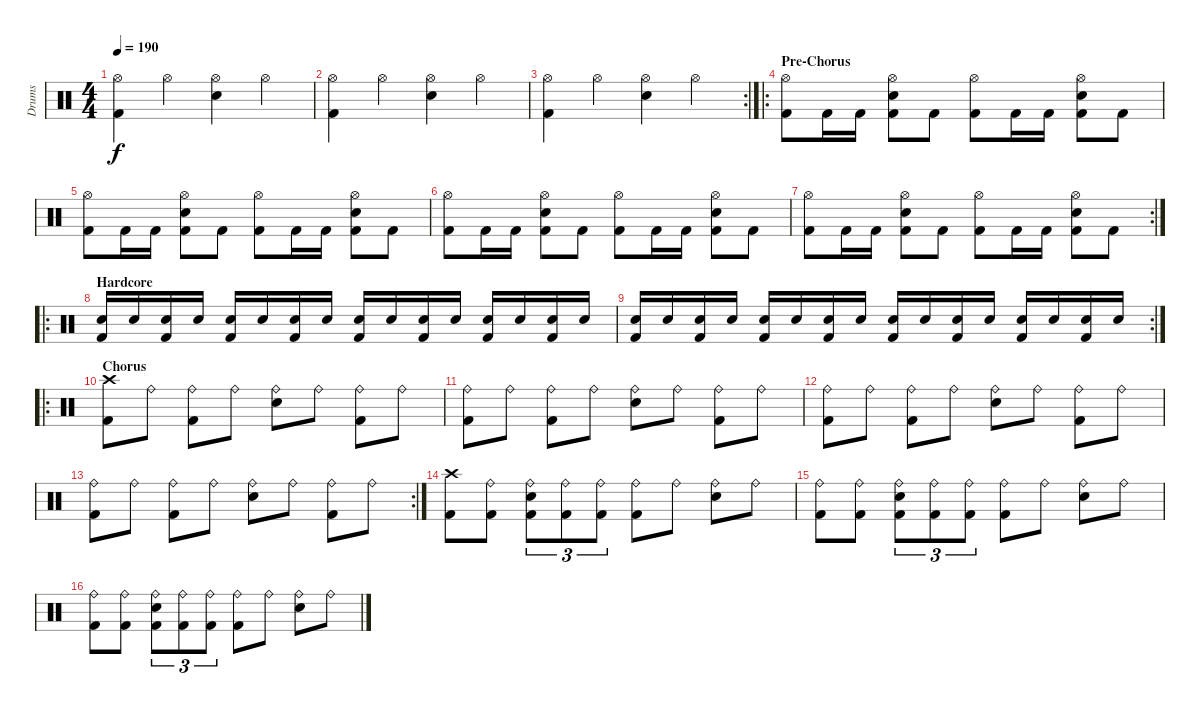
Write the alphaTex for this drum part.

\track ("Drums" "Drums") {instrument percussion}
\staff {score}
\articulation defaults
\ts (4 4)
\tempo 190
\clef neutral
\ks c
("Hi-Hat (open)" "Kick (hit) 2").4{dy f} "Hi-Hat (open)".4 ("Hi-Hat (open)" "Electric Snare (hit)").4 "Hi-Hat (open)".4 |
("Hi-Hat (open)" "Kick (hit) 2").4 "Hi-Hat (open)".4 ("Hi-Hat (open)" "Electric Snare (hit)").4 "Hi-Hat (open)".4 |
\rc 2
("Hi-Hat (open)" "Kick (hit) 2").4 "Hi-Hat (open)".4 ("Hi-Hat (open)" "Electric Snare (hit)").4 "Hi-Hat (open)".4 |
\ro
\section ("" "Pre-Chorus")
("Kick (hit) 2" "Hi-Hat (open)").8 "Kick (hit) 2".16 "Kick (hit) 2".16 ("Kick (hit) 2" "Hi-Hat (open)" "Electric Snare (hit)").8 "Kick (hit) 2".8 ("Kick (hit) 2" "Hi-Hat (open)").8 "Kick (hit) 2".16 "Kick (hit) 2".16 ("Kick (hit) 2" "Hi-Hat (open)" "Electric Snare (hit)").8 "Kick (hit) 2".8 |
("Kick (hit) 2" "Hi-Hat (open)").8 "Kick (hit) 2".16 "Kick (hit) 2".16 ("Kick (hit) 2" "Hi-Hat (open)" "Electric Snare (hit)").8 "Kick (hit) 2".8 ("Kick (hit) 2" "Hi-Hat (open)").8 "Kick (hit) 2".16 "Kick (hit) 2".16 ("Kick (hit) 2" "Hi-Hat (open)" "Electric Snare (hit)").8 "Kick (hit) 2".8 |
("Kick (hit) 2" "Hi-Hat (open)").8 "Kick (hit) 2".16 "Kick (hit) 2".16 ("Kick (hit) 2" "Hi-Hat (open)" "Electric Snare (hit)").8 "Kick (hit) 2".8 ("Kick (hit) 2" "Hi-Hat (open)").8 "Kick (hit) 2".16 "Kick (hit) 2".16 ("Kick (hit) 2" "Hi-Hat (open)" "Electric Snare (hit)").8 "Kick (hit) 2".8 |
\rc 2
("Kick (hit) 2" "Hi-Hat (open)").8 "Kick (hit) 2".16 "Kick (hit) 2".16 ("Kick (hit) 2" "Hi-Hat (open)" "Electric Snare (hit)").8 "Kick (hit) 2".8 ("Kick (hit) 2" "Hi-Hat (open)").8 "Kick (hit) 2".16 "Kick (hit) 2".16 ("Kick (hit) 2" "Hi-Hat (open)" "Electric Snare (hit)").8 "Kick (hit) 2".8 |
\ro
\section ("" "Hardcore")
("Kick (hit) 2" "Electric Snare (hit)").16 "Electric Snare (hit)".16 ("Kick (hit) 2" "Electric Snare (hit)").16 "Electric Snare (hit)".16 ("Kick (hit) 2" "Electric Snare (hit)").16 "Electric Snare (hit)".16 ("Kick (hit) 2" "Electric Snare (hit)").16 "Electric Snare (hit)".16 ("Kick (hit) 2" "Electric Snare (hit)").16 "Electric Snare (hit)".16 ("Kick (hit) 2" "Electric Snare (hit)").16 "Electric Snare (hit)".16 ("Kick (hit) 2" "Electric Snare (hit)").16 "Electric Snare (hit)".16 ("Kick (hit) 2" "Electric Snare (hit)").16 "Electric Snare (hit)".16 |
\rc 2
("Kick (hit) 2" "Electric Snare (hit)").16 "Electric Snare (hit)".16 ("Kick (hit) 2" "Electric Snare (hit)").16 "Electric Snare (hit)".16 ("Kick (hit) 2" "Electric Snare (hit)").16 "Electric Snare (hit)".16 ("Kick (hit) 2" "Electric Snare (hit)").16 "Electric Snare (hit)".16 ("Kick (hit) 2" "Electric Snare (hit)").16 "Electric Snare (hit)".16 ("Kick (hit) 2" "Electric Snare (hit)").16 "Electric Snare (hit)".16 ("Kick (hit) 2" "Electric Snare (hit)").16 "Electric Snare (hit)".16 ("Kick (hit) 2" "Electric Snare (hit)").16 "Electric Snare (hit)".16 |
\ro
\section ("" "Chorus")
("Crash high (hit)" "Kick (hit) 2").8 "Ride (bell)".8 ("Ride (bell)" "Kick (hit) 2").8 "Ride (bell)".8 ("Ride (bell)" "Electric Snare (hit)").8 "Ride (bell)".8 ("Ride (bell)" "Kick (hit) 2").8 "Ride (bell)".8 |
("Ride (bell)" "Kick (hit) 2").8 "Ride (bell)".8 ("Ride (bell)" "Kick (hit) 2").8 "Ride (bell)".8 ("Ride (bell)" "Electric Snare (hit)").8 "Ride (bell)".8 ("Ride (bell)" "Kick (hit) 2").8 "Ride (bell)".8 |
("Ride (bell)" "Kick (hit) 2").8 "Ride (bell)".8 ("Ride (bell)" "Kick (hit) 2").8 "Ride (bell)".8 ("Ride (bell)" "Electric Snare (hit)").8 "Ride (bell)".8 ("Ride (bell)" "Kick (hit) 2").8 "Ride (bell)".8 |
\rc 2
("Ride (bell)" "Kick (hit) 2").8 "Ride (bell)".8 ("Ride (bell)" "Kick (hit) 2").8 "Ride (bell)".8 ("Ride (bell)" "Electric Snare (hit)").8 "Ride (bell)".8 ("Ride (bell)" "Kick (hit) 2").8 "Ride (bell)".8 |
("Crash high (hit)" "Kick (hit) 2").8 ("Ride (bell)" "Kick (hit) 2").8 ("Ride (bell)" "Kick (hit) 2" "Electric Snare (hit)").8{tu (3 2)} ("Ride (bell)" "Kick (hit) 2").8{tu (3 2)} ("Ride (bell)" "Kick (hit) 2").8{tu (3 2)} ("Ride (bell)" "Kick (hit) 2").8 "Ride (bell)".8 ("Ride (bell)" "Electric Snare (hit)").8 "Ride (bell)".8 |
("Ride (bell)" "Kick (hit) 2").8 ("Ride (bell)" "Kick (hit) 2").8 ("Ride (bell)" "Kick (hit) 2" "Electric Snare (hit)").8{tu (3 2)} ("Ride (bell)" "Kick (hit) 2").8{tu (3 2)} ("Ride (bell)" "Kick (hit) 2").8{tu (3 2)} ("Ride (bell)" "Kick (hit) 2").8 "Ride (bell)".8 ("Ride (bell)" "Electric Snare (hit)").8 "Ride (bell)".8 |
("Ride (bell)" "Kick (hit) 2").8 ("Ride (bell)" "Kick (hit) 2").8 ("Ride (bell)" "Kick (hit) 2" "Electric Snare (hit)").8{tu (3 2)} ("Ride (bell)" "Kick (hit) 2").8{tu (3 2)} ("Ride (bell)" "Kick (hit) 2").8{tu (3 2)} ("Ride (bell)" "Kick (hit) 2").8 "Ride (bell)".8 ("Ride (bell)" "Electric Snare (hit)").8 "Ride (bell)".8
